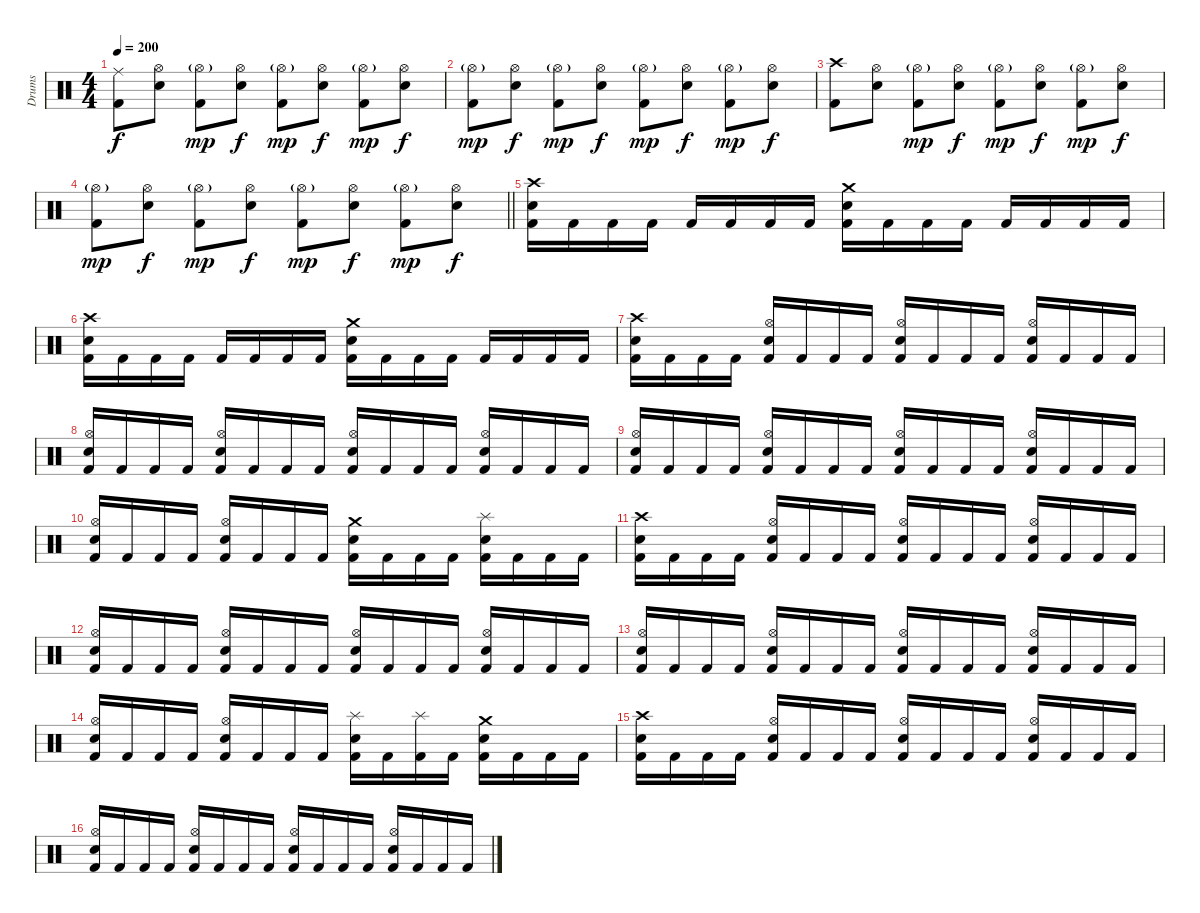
\track ("Drums" "Drums") {instrument percussion}
\staff {score}
\articulation defaults
\ts (4 4)
\tempo 200
\clef neutral
\ks c
("Ride (middle)" "Kick (hit) 2").8{dy f} ("Hi-Hat (open)" "Electric Snare (hit)").8 ("Hi-Hat (open)"{g} "Kick (hit) 2").8{dy mp} ("Hi-Hat (open)" "Electric Snare (hit)").8{dy f} ("Hi-Hat (open)"{g} "Kick (hit) 2").8{dy mp} ("Hi-Hat (open)" "Electric Snare (hit)").8{dy f} ("Hi-Hat (open)"{g} "Kick (hit) 2").8{dy mp} ("Hi-Hat (open)" "Electric Snare (hit)").8{dy f} |
("Hi-Hat (open)"{g} "Kick (hit) 2").8{dy mp} ("Hi-Hat (open)" "Electric Snare (hit)").8{dy f} ("Hi-Hat (open)"{g} "Kick (hit) 2").8{dy mp} ("Hi-Hat (open)" "Electric Snare (hit)").8{dy f} ("Hi-Hat (open)"{g} "Kick (hit) 2").8{dy mp} ("Hi-Hat (open)" "Electric Snare (hit)").8{dy f} ("Hi-Hat (open)"{g} "Kick (hit) 2").8{dy mp} ("Hi-Hat (open)" "Electric Snare (hit)").8{dy f} |
("Crash high (hit)" "Kick (hit) 2").8 ("Hi-Hat (open)" "Electric Snare (hit)").8 ("Hi-Hat (open)"{g} "Kick (hit) 2").8{dy mp} ("Hi-Hat (open)" "Electric Snare (hit)").8{dy f} ("Hi-Hat (open)"{g} "Kick (hit) 2").8{dy mp} ("Hi-Hat (open)" "Electric Snare (hit)").8{dy f} ("Hi-Hat (open)"{g} "Kick (hit) 2").8{dy mp} ("Hi-Hat (open)" "Electric Snare (hit)").8{dy f} |
\barLineRight lightlight
("Hi-Hat (open)"{g} "Kick (hit) 2").8{dy mp} ("Hi-Hat (open)" "Electric Snare (hit)").8{dy f} ("Hi-Hat (open)"{g} "Kick (hit) 2").8{dy mp} ("Hi-Hat (open)" "Electric Snare (hit)").8{dy f} ("Hi-Hat (open)"{g} "Kick (hit) 2").8{dy mp} ("Hi-Hat (open)" "Electric Snare (hit)").8{dy f} ("Hi-Hat (open)"{g} "Kick (hit) 2").8{dy mp} ("Hi-Hat (open)" "Electric Snare (hit)").8{dy f} |
\section ("" "")
("Crash high (hit)" "Electric Snare (hit)" "Kick (hit) 2").16 "Kick (hit) 2".16 "Kick (hit) 2".16 "Kick (hit) 2".16 "Kick (hit) 2".16 "Kick (hit) 2".16 "Kick (hit) 2".16 "Kick (hit) 2".16 ("Crash medium (hit)" "Electric Snare (hit)" "Kick (hit) 2").16 "Kick (hit) 2".16 "Kick (hit) 2".16 "Kick (hit) 2".16 "Kick (hit) 2".16 "Kick (hit) 2".16 "Kick (hit) 2".16 "Kick (hit) 2".16 |
("Crash high (hit)" "Electric Snare (hit)" "Kick (hit) 2").16 "Kick (hit) 2".16 "Kick (hit) 2".16 "Kick (hit) 2".16 "Kick (hit) 2".16 "Kick (hit) 2".16 "Kick (hit) 2".16 "Kick (hit) 2".16 ("Crash medium (hit)" "Electric Snare (hit)" "Kick (hit) 2").16 "Kick (hit) 2".16 "Kick (hit) 2".16 "Kick (hit) 2".16 "Kick (hit) 2".16 "Kick (hit) 2".16 "Kick (hit) 2".16 "Kick (hit) 2".16 |
("Crash high (hit)" "Electric Snare (hit)" "Kick (hit) 2").16 "Kick (hit) 2".16 "Kick (hit) 2".16 "Kick (hit) 2".16 ("Hi-Hat (open)" "Electric Snare (hit)" "Kick (hit) 2").16 "Kick (hit) 2".16 "Kick (hit) 2".16 "Kick (hit) 2".16 ("Hi-Hat (open)" "Electric Snare (hit)" "Kick (hit) 2").16 "Kick (hit) 2".16 "Kick (hit) 2".16 "Kick (hit) 2".16 ("Hi-Hat (open)" "Electric Snare (hit)" "Kick (hit) 2").16 "Kick (hit) 2".16 "Kick (hit) 2".16 "Kick (hit) 2".16 |
("Hi-Hat (open)" "Electric Snare (hit)" "Kick (hit) 2").16 "Kick (hit) 2".16 "Kick (hit) 2".16 "Kick (hit) 2".16 ("Hi-Hat (open)" "Electric Snare (hit)" "Kick (hit) 2").16 "Kick (hit) 2".16 "Kick (hit) 2".16 "Kick (hit) 2".16 ("Hi-Hat (open)" "Electric Snare (hit)" "Kick (hit) 2").16 "Kick (hit) 2".16 "Kick (hit) 2".16 "Kick (hit) 2".16 ("Hi-Hat (open)" "Electric Snare (hit)" "Kick (hit) 2").16 "Kick (hit) 2".16 "Kick (hit) 2".16 "Kick (hit) 2".16 |
("Hi-Hat (open)" "Electric Snare (hit)" "Kick (hit) 2").16 "Kick (hit) 2".16 "Kick (hit) 2".16 "Kick (hit) 2".16 ("Hi-Hat (open)" "Electric Snare (hit)" "Kick (hit) 2").16 "Kick (hit) 2".16 "Kick (hit) 2".16 "Kick (hit) 2".16 ("Hi-Hat (open)" "Electric Snare (hit)" "Kick (hit) 2").16 "Kick (hit) 2".16 "Kick (hit) 2".16 "Kick (hit) 2".16 ("Hi-Hat (open)" "Electric Snare (hit)" "Kick (hit) 2").16 "Kick (hit) 2".16 "Kick (hit) 2".16 "Kick (hit) 2".16 |
("Hi-Hat (open)" "Electric Snare (hit)" "Kick (hit) 2").16 "Kick (hit) 2".16 "Kick (hit) 2".16 "Kick (hit) 2".16 ("Hi-Hat (open)" "Electric Snare (hit)" "Kick (hit) 2").16 "Kick (hit) 2".16 "Kick (hit) 2".16 "Kick (hit) 2".16 ("Crash medium (hit)" "Electric Snare (hit)" "Kick (hit) 2").16 "Kick (hit) 2".16 "Kick (hit) 2".16 "Kick (hit) 2".16 ("Splash (hit)" "Electric Snare (hit)" "Kick (hit) 2").16 "Kick (hit) 2".16 "Kick (hit) 2".16 "Kick (hit) 2".16 |
("Crash high (hit)" "Electric Snare (hit)" "Kick (hit) 2").16 "Kick (hit) 2".16 "Kick (hit) 2".16 "Kick (hit) 2".16 ("Hi-Hat (open)" "Electric Snare (hit)" "Kick (hit) 2").16 "Kick (hit) 2".16 "Kick (hit) 2".16 "Kick (hit) 2".16 ("Hi-Hat (open)" "Electric Snare (hit)" "Kick (hit) 2").16 "Kick (hit) 2".16 "Kick (hit) 2".16 "Kick (hit) 2".16 ("Hi-Hat (open)" "Electric Snare (hit)" "Kick (hit) 2").16 "Kick (hit) 2".16 "Kick (hit) 2".16 "Kick (hit) 2".16 |
("Hi-Hat (open)" "Electric Snare (hit)" "Kick (hit) 2").16 "Kick (hit) 2".16 "Kick (hit) 2".16 "Kick (hit) 2".16 ("Hi-Hat (open)" "Electric Snare (hit)" "Kick (hit) 2").16 "Kick (hit) 2".16 "Kick (hit) 2".16 "Kick (hit) 2".16 ("Hi-Hat (open)" "Electric Snare (hit)" "Kick (hit) 2").16 "Kick (hit) 2".16 "Kick (hit) 2".16 "Kick (hit) 2".16 ("Hi-Hat (open)" "Electric Snare (hit)" "Kick (hit) 2").16 "Kick (hit) 2".16 "Kick (hit) 2".16 "Kick (hit) 2".16 |
("Hi-Hat (open)" "Electric Snare (hit)" "Kick (hit) 2").16 "Kick (hit) 2".16 "Kick (hit) 2".16 "Kick (hit) 2".16 ("Hi-Hat (open)" "Electric Snare (hit)" "Kick (hit) 2").16 "Kick (hit) 2".16 "Kick (hit) 2".16 "Kick (hit) 2".16 ("Hi-Hat (open)" "Electric Snare (hit)" "Kick (hit) 2").16 "Kick (hit) 2".16 "Kick (hit) 2".16 "Kick (hit) 2".16 ("Hi-Hat (open)" "Electric Snare (hit)" "Kick (hit) 2").16 "Kick (hit) 2".16 "Kick (hit) 2".16 "Kick (hit) 2".16 |
("Hi-Hat (open)" "Electric Snare (hit)" "Kick (hit) 2").16 "Kick (hit) 2".16 "Kick (hit) 2".16 "Kick (hit) 2".16 ("Hi-Hat (open)" "Electric Snare (hit)" "Kick (hit) 2").16 "Kick (hit) 2".16 "Kick (hit) 2".16 "Kick (hit) 2".16 ("Splash (hit)" "Electric Snare (hit)" "Kick (hit) 2").16 "Kick (hit) 2".16 ("Splash (hit)" "Kick (hit) 2").16 "Kick (hit) 2".16 ("Crash medium (hit)" "Electric Snare (hit)" "Kick (hit) 2").16 "Kick (hit) 2".16 "Kick (hit) 2".16 "Kick (hit) 2".16 |
("Crash high (hit)" "Electric Snare (hit)" "Kick (hit) 2").16 "Kick (hit) 2".16 "Kick (hit) 2".16 "Kick (hit) 2".16 ("Hi-Hat (open)" "Electric Snare (hit)" "Kick (hit) 2").16 "Kick (hit) 2".16 "Kick (hit) 2".16 "Kick (hit) 2".16 ("Hi-Hat (open)" "Electric Snare (hit)" "Kick (hit) 2").16 "Kick (hit) 2".16 "Kick (hit) 2".16 "Kick (hit) 2".16 ("Hi-Hat (open)" "Electric Snare (hit)" "Kick (hit) 2").16 "Kick (hit) 2".16 "Kick (hit) 2".16 "Kick (hit) 2".16 |
("Hi-Hat (open)" "Electric Snare (hit)" "Kick (hit) 2").16 "Kick (hit) 2".16 "Kick (hit) 2".16 "Kick (hit) 2".16 ("Hi-Hat (open)" "Electric Snare (hit)" "Kick (hit) 2").16 "Kick (hit) 2".16 "Kick (hit) 2".16 "Kick (hit) 2".16 ("Hi-Hat (open)" "Electric Snare (hit)" "Kick (hit) 2").16 "Kick (hit) 2".16 "Kick (hit) 2".16 "Kick (hit) 2".16 ("Hi-Hat (open)" "Electric Snare (hit)" "Kick (hit) 2").16 "Kick (hit) 2".16 "Kick (hit) 2".16 "Kick (hit) 2".16
